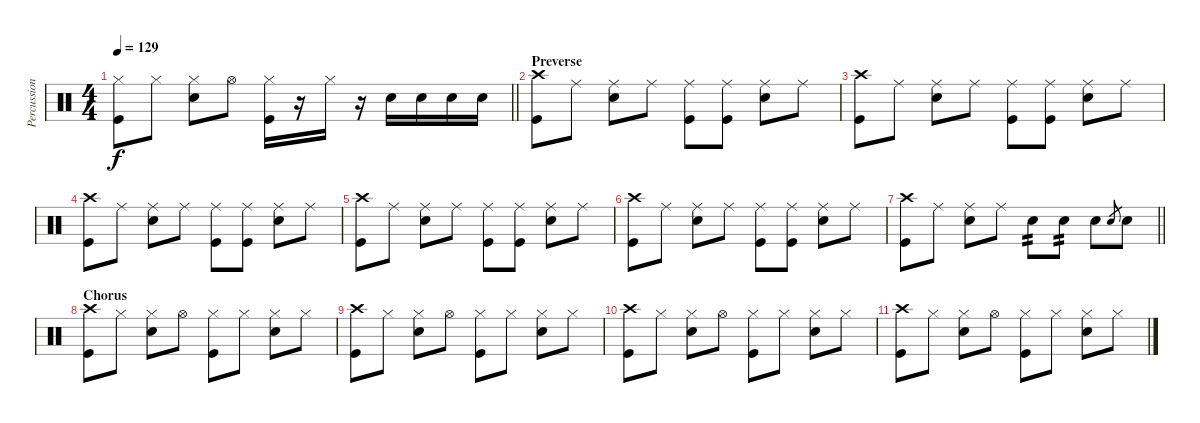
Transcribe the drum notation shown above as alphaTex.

\track ("Percussion" "Percussion") {instrument percussion}
\staff {score}
\articulation defaults
\ts (4 4)
\tempo 129
\clef neutral
\barLineRight lightlight
\ks c
("Hi-Hat (closed)" "Kick (hit)").8{dy f} "Hi-Hat (closed)".8 ("Hi-Hat (closed)" "Snare (hit) 2").8 "Hi-Hat (open)".8 ("Hi-Hat (closed)" "Kick (hit)").16 r.16 "Hi-Hat (closed)".16 r.16 "Electric Snare (hit)".16 "Electric Snare (hit)".16 "Electric Snare (hit)".16 "Electric Snare (hit)".16 |
\section ("" "Preverse")
("Crash high (hit)" "Kick (hit)").8 "Ride (middle)".8 ("Ride (middle)" "Snare (hit) 2").8 "Ride (middle)".8 ("Ride (middle)" "Kick (hit)").8 ("Ride (middle)" "Kick (hit)").8 ("Ride (middle)" "Snare (hit) 2").8 "Ride (middle)".8 |
("Crash high (hit)" "Kick (hit)").8 "Ride (middle)".8 ("Ride (middle)" "Snare (hit) 2").8 "Ride (middle)".8 ("Ride (middle)" "Kick (hit)").8 ("Ride (middle)" "Kick (hit)").8 ("Ride (middle)" "Snare (hit) 2").8 "Ride (middle)".8 |
("Crash high (hit)" "Kick (hit)").8 "Ride (middle)".8 ("Ride (middle)" "Snare (hit) 2").8 "Ride (middle)".8 ("Ride (middle)" "Kick (hit)").8 ("Ride (middle)" "Kick (hit)").8 ("Ride (middle)" "Snare (hit) 2").8 "Ride (middle)".8 |
("Crash high (hit)" "Kick (hit)").8 "Ride (middle)".8 ("Ride (middle)" "Snare (hit) 2").8 "Ride (middle)".8 ("Ride (middle)" "Kick (hit)").8 ("Ride (middle)" "Kick (hit)").8 ("Ride (middle)" "Snare (hit) 2").8 "Ride (middle)".8 |
("Crash high (hit)" "Kick (hit)").8 "Ride (middle)".8 ("Ride (middle)" "Snare (hit) 2").8 "Ride (middle)".8 ("Ride (middle)" "Kick (hit)").8 ("Ride (middle)" "Kick (hit)").8 ("Ride (middle)" "Snare (hit) 2").8 "Ride (middle)".8 |
\barLineRight lightlight
("Crash high (hit)" "Kick (hit)").8 "Ride (middle)".8 ("Ride (middle)" "Snare (hit) 2").8 "Ride (middle)".8 "Electric Snare (hit)".8{tp 2} "Electric Snare (hit)".8{tp 2} "Electric Snare (hit)".8 "Electric Snare (hit)".8{gr} "Electric Snare (hit)".8 |
\section ("" "Chorus")
("Crash high (hit)" "Kick (hit)").8 "Hi-Hat (closed)".8 ("Hi-Hat (closed)" "Snare (hit) 2").8 "Hi-Hat (open)".8 ("Hi-Hat (closed)" "Kick (hit)").8 "Hi-Hat (closed)".8 ("Hi-Hat (closed)" "Snare (hit) 2").8 "Hi-Hat (closed)".8 |
("Crash high (hit)" "Kick (hit)").8 "Hi-Hat (closed)".8 ("Hi-Hat (closed)" "Snare (hit) 2").8 "Hi-Hat (open)".8 ("Hi-Hat (closed)" "Kick (hit)").8 "Hi-Hat (closed)".8 ("Hi-Hat (closed)" "Snare (hit) 2").8 "Hi-Hat (closed)".8 |
("Crash high (hit)" "Kick (hit)").8 "Hi-Hat (closed)".8 ("Hi-Hat (closed)" "Snare (hit) 2").8 "Hi-Hat (open)".8 ("Hi-Hat (closed)" "Kick (hit)").8 "Hi-Hat (closed)".8 ("Hi-Hat (closed)" "Snare (hit) 2").8 "Hi-Hat (closed)".8 |
("Crash high (hit)" "Kick (hit)").8 "Hi-Hat (closed)".8 ("Hi-Hat (closed)" "Snare (hit) 2").8 "Hi-Hat (open)".8 ("Hi-Hat (closed)" "Kick (hit)").8 "Hi-Hat (closed)".8 ("Hi-Hat (closed)" "Snare (hit) 2").8 "Hi-Hat (closed)".8
